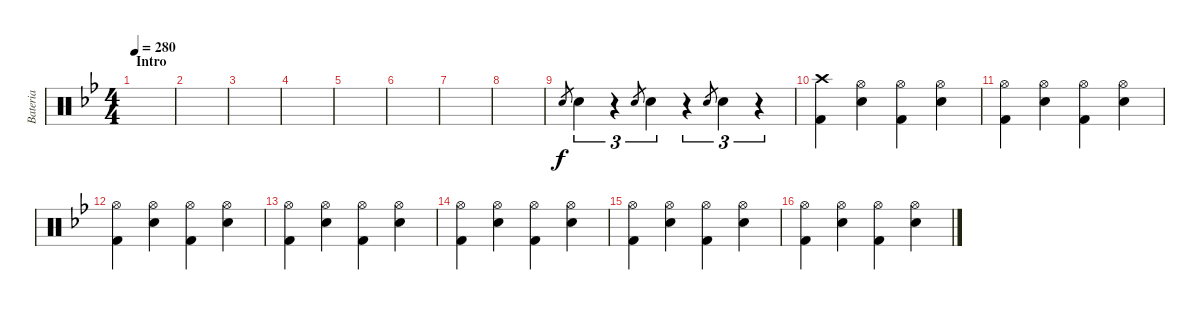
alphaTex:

\track ("Bateria" "Bateria") {instrument percussion}
\staff {score}
\articulation defaults
\ts (4 4)
\section ("" "Intro")
\tempo 280
\clef neutral
\ks bb
|
|
|
|
|
|
|
|
"Electric Snare (hit)".8{gr} "Electric Snare (hit)".4{tu (3 2)} r.4{tu (3 2)} "Electric Snare (hit)".8{gr} "Electric Snare (hit)".4{tu (3 2)} r.4{tu (3 2)} "Electric Snare (hit)".8{gr} "Electric Snare (hit)".4{tu (3 2)} r.4{tu (3 2)} |
("Crash high (hit)" "Kick (hit) 2").4 ("Hi-Hat (open)" "Electric Snare (hit)").4 ("Hi-Hat (open)" "Kick (hit) 2").4 ("Hi-Hat (open)" "Electric Snare (hit)").4 |
("Hi-Hat (open)" "Kick (hit) 2").4 ("Hi-Hat (open)" "Electric Snare (hit)").4 ("Hi-Hat (open)" "Kick (hit) 2").4 ("Hi-Hat (open)" "Electric Snare (hit)").4 |
("Hi-Hat (open)" "Kick (hit) 2").4 ("Hi-Hat (open)" "Electric Snare (hit)").4 ("Hi-Hat (open)" "Kick (hit) 2").4 ("Hi-Hat (open)" "Electric Snare (hit)").4 |
("Hi-Hat (open)" "Kick (hit) 2").4 ("Hi-Hat (open)" "Electric Snare (hit)").4 ("Hi-Hat (open)" "Kick (hit) 2").4 ("Hi-Hat (open)" "Electric Snare (hit)").4 |
("Hi-Hat (open)" "Kick (hit) 2").4 ("Hi-Hat (open)" "Electric Snare (hit)").4 ("Hi-Hat (open)" "Kick (hit) 2").4 ("Hi-Hat (open)" "Electric Snare (hit)").4 |
("Hi-Hat (open)" "Kick (hit) 2").4 ("Hi-Hat (open)" "Electric Snare (hit)").4 ("Hi-Hat (open)" "Kick (hit) 2").4 ("Hi-Hat (open)" "Electric Snare (hit)").4 |
("Hi-Hat (open)" "Kick (hit) 2").4 ("Hi-Hat (open)" "Electric Snare (hit)").4 ("Hi-Hat (open)" "Kick (hit) 2").4 ("Hi-Hat (open)" "Electric Snare (hit)").4
